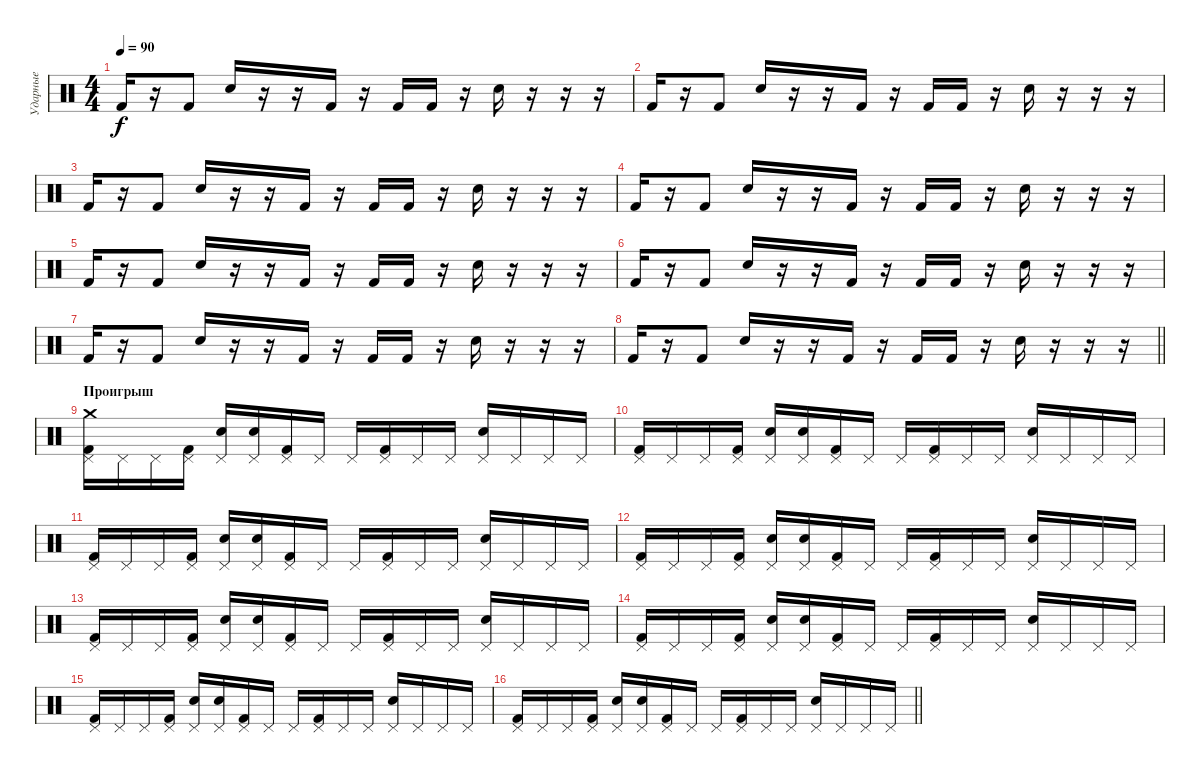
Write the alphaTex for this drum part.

\track ("Ударные" "Ударные") {instrument percussion}
\staff {score}
\articulation defaults
\ts (4 4)
\section ("" " ")
\tempo 90
\clef neutral
\ks c "Kick (hit) 2".16{dy f}
r.16 "Kick (hit) 2".8 "Electric Snare (hit)".16 r.16 r.16 "Kick (hit) 2".16 r.16 "Kick (hit) 2".16 "Kick (hit) 2".16 r.16 "Electric Snare (hit)".16 r.16 r.16 r.16 |
"Kick (hit) 2".16 r.16 "Kick (hit) 2".8 "Electric Snare (hit)".16 r.16 r.16 "Kick (hit) 2".16 r.16 "Kick (hit) 2".16 "Kick (hit) 2".16 r.16 "Electric Snare (hit)".16 r.16 r.16 r.16 |
"Kick (hit) 2".16 r.16 "Kick (hit) 2".8 "Electric Snare (hit)".16 r.16 r.16 "Kick (hit) 2".16 r.16 "Kick (hit) 2".16 "Kick (hit) 2".16 r.16 "Electric Snare (hit)".16 r.16 r.16 r.16 |
"Kick (hit) 2".16 r.16 "Kick (hit) 2".8 "Electric Snare (hit)".16 r.16 r.16 "Kick (hit) 2".16 r.16 "Kick (hit) 2".16 "Kick (hit) 2".16 r.16 "Electric Snare (hit)".16 r.16 r.16 r.16 |
"Kick (hit) 2".16 r.16 "Kick (hit) 2".8 "Electric Snare (hit)".16 r.16 r.16 "Kick (hit) 2".16 r.16 "Kick (hit) 2".16 "Kick (hit) 2".16 r.16 "Electric Snare (hit)".16 r.16 r.16 r.16 |
"Kick (hit) 2".16 r.16 "Kick (hit) 2".8 "Electric Snare (hit)".16 r.16 r.16 "Kick (hit) 2".16 r.16 "Kick (hit) 2".16 "Kick (hit) 2".16 r.16 "Electric Snare (hit)".16 r.16 r.16 r.16 |
"Kick (hit) 2".16 r.16 "Kick (hit) 2".8 "Electric Snare (hit)".16 r.16 r.16 "Kick (hit) 2".16 r.16 "Kick (hit) 2".16 "Kick (hit) 2".16 r.16 "Electric Snare (hit)".16 r.16 r.16 r.16 |
\barLineRight lightlight "Kick (hit) 2".16
r.16 "Kick (hit) 2".8 "Electric Snare (hit)".16 r.16 r.16 "Kick (hit) 2".16 r.16 "Kick (hit) 2".16 "Kick (hit) 2".16 r.16 "Electric Snare (hit)".16 r.16 r.16 r.16 |
\section ("" "Проигрыш")
("Pedal Hi-Hat (hit)" "Kick (hit) 2" "Crash medium (hit)").16 "Pedal Hi-Hat (hit)".16 "Pedal Hi-Hat (hit)".16 ("Pedal Hi-Hat (hit)" "Kick (hit) 2").16 ("Pedal Hi-Hat (hit)" "Electric Snare (hit)").16 ("Pedal Hi-Hat (hit)" "Electric Snare (hit)").16 ("Pedal Hi-Hat (hit)" "Kick (hit) 2").16 "Pedal Hi-Hat (hit)".16 "Pedal Hi-Hat (hit)".16 ("Pedal Hi-Hat (hit)" "Kick (hit) 2").16 "Pedal Hi-Hat (hit)".16 "Pedal Hi-Hat (hit)".16 ("Pedal Hi-Hat (hit)" "Electric Snare (hit)").16 "Pedal Hi-Hat (hit)".16 "Pedal Hi-Hat (hit)".16 "Pedal Hi-Hat (hit)".16 |
("Pedal Hi-Hat (hit)" "Kick (hit) 2").16 "Pedal Hi-Hat (hit)".16 "Pedal Hi-Hat (hit)".16 ("Pedal Hi-Hat (hit)" "Kick (hit) 2").16 ("Pedal Hi-Hat (hit)" "Electric Snare (hit)").16 ("Pedal Hi-Hat (hit)" "Electric Snare (hit)").16 ("Pedal Hi-Hat (hit)" "Kick (hit) 2").16 "Pedal Hi-Hat (hit)".16 "Pedal Hi-Hat (hit)".16 ("Pedal Hi-Hat (hit)" "Kick (hit) 2").16 "Pedal Hi-Hat (hit)".16 "Pedal Hi-Hat (hit)".16 ("Pedal Hi-Hat (hit)" "Electric Snare (hit)").16 "Pedal Hi-Hat (hit)".16 "Pedal Hi-Hat (hit)".16 "Pedal Hi-Hat (hit)".16 |
("Pedal Hi-Hat (hit)" "Kick (hit) 2").16 "Pedal Hi-Hat (hit)".16 "Pedal Hi-Hat (hit)".16 ("Pedal Hi-Hat (hit)" "Kick (hit) 2").16 ("Pedal Hi-Hat (hit)" "Electric Snare (hit)").16 ("Pedal Hi-Hat (hit)" "Electric Snare (hit)").16 ("Pedal Hi-Hat (hit)" "Kick (hit) 2").16 "Pedal Hi-Hat (hit)".16 "Pedal Hi-Hat (hit)".16 ("Pedal Hi-Hat (hit)" "Kick (hit) 2").16 "Pedal Hi-Hat (hit)".16 "Pedal Hi-Hat (hit)".16 ("Pedal Hi-Hat (hit)" "Electric Snare (hit)").16 "Pedal Hi-Hat (hit)".16 "Pedal Hi-Hat (hit)".16 "Pedal Hi-Hat (hit)".16 |
("Pedal Hi-Hat (hit)" "Kick (hit) 2").16 "Pedal Hi-Hat (hit)".16 "Pedal Hi-Hat (hit)".16 ("Pedal Hi-Hat (hit)" "Kick (hit) 2").16 ("Pedal Hi-Hat (hit)" "Electric Snare (hit)").16 ("Pedal Hi-Hat (hit)" "Electric Snare (hit)").16 ("Pedal Hi-Hat (hit)" "Kick (hit) 2").16 "Pedal Hi-Hat (hit)".16 "Pedal Hi-Hat (hit)".16 ("Pedal Hi-Hat (hit)" "Kick (hit) 2").16 "Pedal Hi-Hat (hit)".16 "Pedal Hi-Hat (hit)".16 ("Pedal Hi-Hat (hit)" "Electric Snare (hit)").16 "Pedal Hi-Hat (hit)".16 "Pedal Hi-Hat (hit)".16 "Pedal Hi-Hat (hit)".16 |
("Pedal Hi-Hat (hit)" "Kick (hit) 2").16 "Pedal Hi-Hat (hit)".16 "Pedal Hi-Hat (hit)".16 ("Pedal Hi-Hat (hit)" "Kick (hit) 2").16 ("Pedal Hi-Hat (hit)" "Electric Snare (hit)").16 ("Pedal Hi-Hat (hit)" "Electric Snare (hit)").16 ("Pedal Hi-Hat (hit)" "Kick (hit) 2").16 "Pedal Hi-Hat (hit)".16 "Pedal Hi-Hat (hit)".16 ("Pedal Hi-Hat (hit)" "Kick (hit) 2").16 "Pedal Hi-Hat (hit)".16 "Pedal Hi-Hat (hit)".16 ("Pedal Hi-Hat (hit)" "Electric Snare (hit)").16 "Pedal Hi-Hat (hit)".16 "Pedal Hi-Hat (hit)".16 "Pedal Hi-Hat (hit)".16 |
("Pedal Hi-Hat (hit)" "Kick (hit) 2").16 "Pedal Hi-Hat (hit)".16 "Pedal Hi-Hat (hit)".16 ("Pedal Hi-Hat (hit)" "Kick (hit) 2").16 ("Pedal Hi-Hat (hit)" "Electric Snare (hit)").16 ("Pedal Hi-Hat (hit)" "Electric Snare (hit)").16 ("Pedal Hi-Hat (hit)" "Kick (hit) 2").16 "Pedal Hi-Hat (hit)".16 "Pedal Hi-Hat (hit)".16 ("Pedal Hi-Hat (hit)" "Kick (hit) 2").16 "Pedal Hi-Hat (hit)".16 "Pedal Hi-Hat (hit)".16 ("Pedal Hi-Hat (hit)" "Electric Snare (hit)").16 "Pedal Hi-Hat (hit)".16 "Pedal Hi-Hat (hit)".16 "Pedal Hi-Hat (hit)".16 |
("Pedal Hi-Hat (hit)" "Kick (hit) 2").16 "Pedal Hi-Hat (hit)".16 "Pedal Hi-Hat (hit)".16 ("Pedal Hi-Hat (hit)" "Kick (hit) 2").16 ("Pedal Hi-Hat (hit)" "Electric Snare (hit)").16 ("Pedal Hi-Hat (hit)" "Electric Snare (hit)").16 ("Pedal Hi-Hat (hit)" "Kick (hit) 2").16 "Pedal Hi-Hat (hit)".16 "Pedal Hi-Hat (hit)".16 ("Pedal Hi-Hat (hit)" "Kick (hit) 2").16 "Pedal Hi-Hat (hit)".16 "Pedal Hi-Hat (hit)".16 ("Pedal Hi-Hat (hit)" "Electric Snare (hit)").16 "Pedal Hi-Hat (hit)".16 "Pedal Hi-Hat (hit)".16 "Pedal Hi-Hat (hit)".16 |
\barLineRight lightlight
("Pedal Hi-Hat (hit)" "Kick (hit) 2").16 "Pedal Hi-Hat (hit)".16 "Pedal Hi-Hat (hit)".16 ("Pedal Hi-Hat (hit)" "Kick (hit) 2").16 ("Pedal Hi-Hat (hit)" "Electric Snare (hit)").16 ("Pedal Hi-Hat (hit)" "Electric Snare (hit)").16 ("Pedal Hi-Hat (hit)" "Kick (hit) 2").16 "Pedal Hi-Hat (hit)".16 "Pedal Hi-Hat (hit)".16 ("Pedal Hi-Hat (hit)" "Kick (hit) 2").16 "Pedal Hi-Hat (hit)".16 "Pedal Hi-Hat (hit)".16 ("Pedal Hi-Hat (hit)" "Electric Snare (hit)").16 "Pedal Hi-Hat (hit)".16 "Pedal Hi-Hat (hit)".16 "Pedal Hi-Hat (hit)".16
